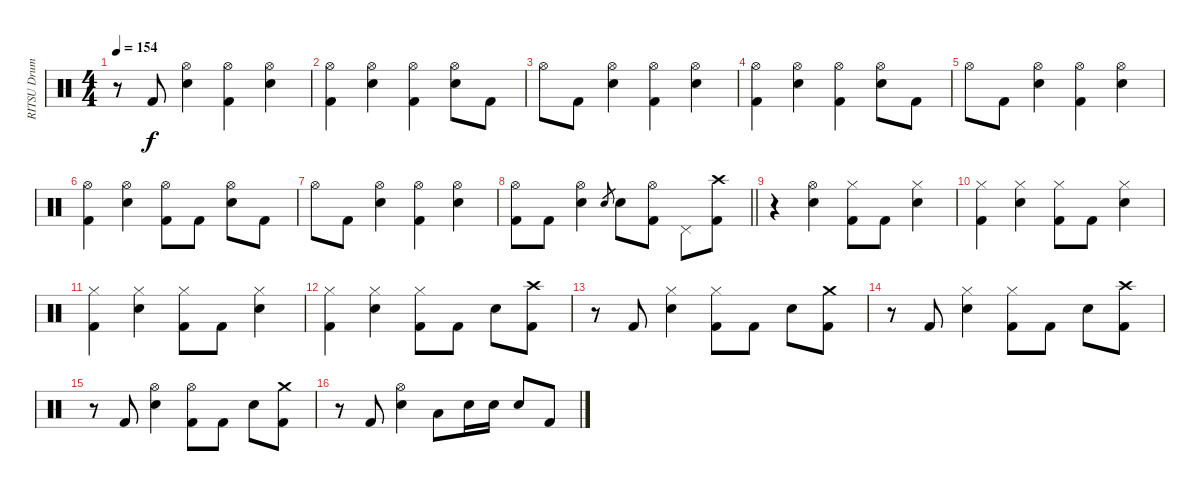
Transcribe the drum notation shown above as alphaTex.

\track ("RITSU Drums" "RITSU Drum") {instrument percussion}
\staff {score}
\articulation defaults
\ts (4 4)
\tempo 154
\clef neutral
\ks c
r.8{dy f} "Kick (hit) 2".8 ("Hi-Hat (open)" "Electric Snare (hit)").4 ("Hi-Hat (open)" "Kick (hit) 2").4 ("Hi-Hat (open)" "Electric Snare (hit)").4 |
("Hi-Hat (open)" "Kick (hit) 2").4 ("Hi-Hat (open)" "Electric Snare (hit)").4 ("Hi-Hat (open)" "Kick (hit) 2").4 ("Hi-Hat (open)" "Electric Snare (hit)").8 "Kick (hit) 2".8 |
"Hi-Hat (open)".8 "Kick (hit) 2".8 ("Hi-Hat (open)" "Electric Snare (hit)").4 ("Hi-Hat (open)" "Kick (hit) 2").4 ("Hi-Hat (open)" "Electric Snare (hit)").4 |
("Hi-Hat (open)" "Kick (hit) 2").4 ("Hi-Hat (open)" "Electric Snare (hit)").4 ("Hi-Hat (open)" "Kick (hit) 2").4 ("Hi-Hat (open)" "Electric Snare (hit)").8 "Kick (hit) 2".8 |
"Hi-Hat (open)".8 "Kick (hit) 2".8 ("Hi-Hat (open)" "Electric Snare (hit)").4 ("Hi-Hat (open)" "Kick (hit) 2").4 ("Hi-Hat (open)" "Electric Snare (hit)").4 |
("Hi-Hat (open)" "Kick (hit) 2").4 ("Hi-Hat (open)" "Electric Snare (hit)").4 ("Hi-Hat (open)" "Kick (hit) 2").8 "Kick (hit) 2".8 ("Hi-Hat (open)" "Electric Snare (hit)").8 "Kick (hit) 2".8 |
"Hi-Hat (open)".8 "Kick (hit) 2".8 ("Hi-Hat (open)" "Electric Snare (hit)").4 ("Hi-Hat (open)" "Kick (hit) 2").4 ("Hi-Hat (open)" "Electric Snare (hit)").4 |
\barLineRight lightlight
("Hi-Hat (open)" "Kick (hit) 2").8 "Kick (hit) 2".8 ("Hi-Hat (open)" "Electric Snare (hit)").4 "Electric Snare (hit)".8{gr} "Electric Snare (hit)".8 ("Hi-Hat (open)" "Kick (hit) 2").8 "Pedal Hi-Hat (hit)".8 ("Crash high (hit)" "Kick (hit) 2").8 |
r.4 ("Hi-Hat (open)" "Electric Snare (hit)").4 ("Hi-Hat (closed)" "Kick (hit) 2").8 "Kick (hit) 2".8 ("Hi-Hat (closed)" "Electric Snare (hit)").4 |
("Hi-Hat (closed)" "Kick (hit) 2").4 ("Hi-Hat (closed)" "Electric Snare (hit)").4 ("Hi-Hat (closed)" "Kick (hit) 2").8 "Kick (hit) 2".8 ("Hi-Hat (closed)" "Electric Snare (hit)").4 |
("Hi-Hat (closed)" "Kick (hit) 2").4 ("Hi-Hat (closed)" "Electric Snare (hit)").4 ("Hi-Hat (closed)" "Kick (hit) 2").8 "Kick (hit) 2".8 ("Hi-Hat (closed)" "Electric Snare (hit)").4 |
("Hi-Hat (closed)" "Kick (hit) 2").4 ("Hi-Hat (closed)" "Electric Snare (hit)").4 ("Hi-Hat (closed)" "Kick (hit) 2").8 "Kick (hit) 2".8 "Electric Snare (hit)".8 ("Crash high (hit)" "Kick (hit) 2").8 |
r.8 "Kick (hit) 2".8 ("Hi-Hat (closed)" "Electric Snare (hit)").4 ("Hi-Hat (closed)" "Kick (hit) 2").8 "Kick (hit) 2".8 "Electric Snare (hit)".8 ("Crash medium (hit)" "Kick (hit) 2").8 |
r.8 "Kick (hit) 2".8 ("Hi-Hat (closed)" "Electric Snare (hit)").4 ("Hi-Hat (closed)" "Kick (hit) 2").8 "Kick (hit) 2".8 "Electric Snare (hit)".8 ("Crash high (hit)" "Kick (hit) 2").8 |
r.8 "Kick (hit) 2".8 ("Hi-Hat (open)" "Electric Snare (hit)").4 ("Hi-Hat (open)" "Kick (hit) 2").8 "Kick (hit) 2".8 "Electric Snare (hit)".8 ("Crash medium (hit)" "Kick (hit) 2").8 |
r.8 "Kick (hit) 2".8 ("Hi-Hat (open)" "Electric Snare (hit)").4 "Low Tom (hit)".8 "Electric Snare (hit)".16 "Electric Snare (hit)".16 "Electric Snare (hit)".8 "Kick (hit) 2".8
